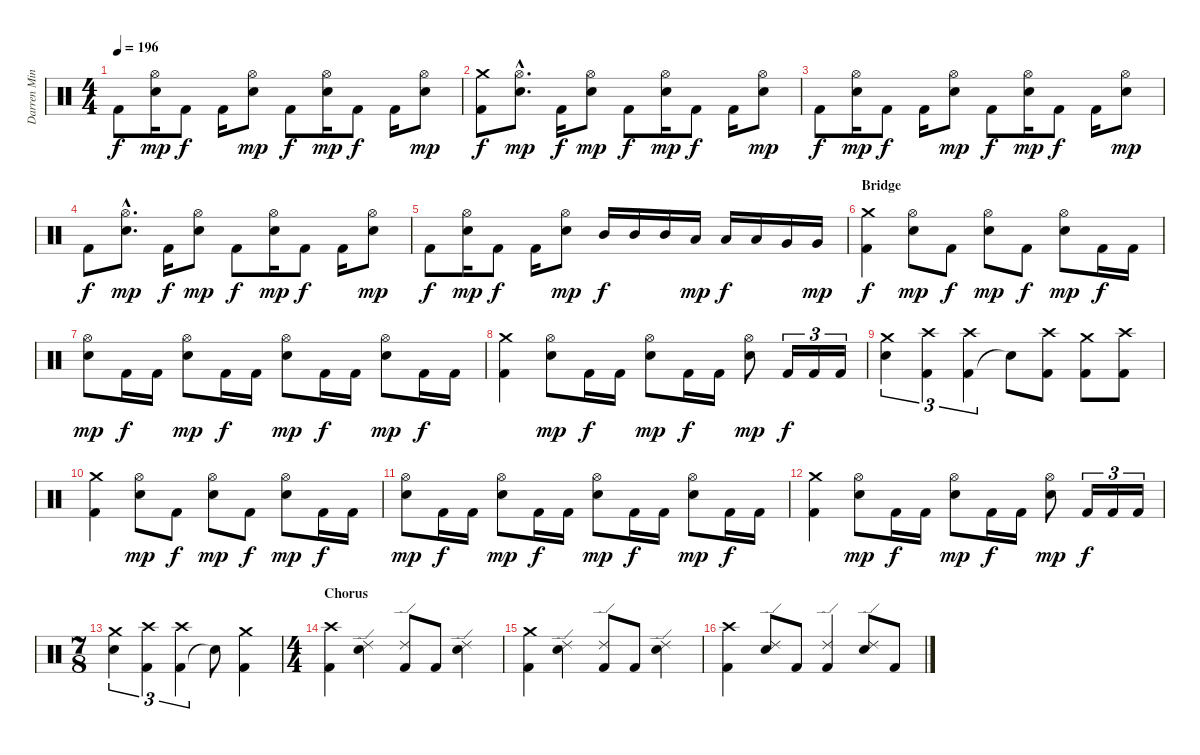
\track ("Darren Minter" "Darren Min") {instrument percussion}
\staff {score}
\articulation defaults
\ts (4 4)
\tempo 196
\clef neutral
\ks c "Kick (hit) 2".8{dy f}
("Hi-Hat (open)" "Snare (hit) 2").16{dy mp} "Kick (hit) 2".8{dy f} "Kick (hit) 2".16 ("Hi-Hat (open)" "Snare (hit) 2").8{dy mp} "Kick (hit) 2".8{dy f} ("Hi-Hat (open)" "Snare (hit) 2").16{dy mp} "Kick (hit) 2".8{dy f} "Kick (hit) 2".16 ("Hi-Hat (open)" "Snare (hit) 2").8{dy mp} |
("Kick (hit) 2" "Crash medium (hit)").8{dy f} ("Hi-Hat (open)"{hac} "Snare (hit) 2"{hac}).8{d dy mp} "Kick (hit) 2".16{dy f} ("Hi-Hat (open)" "Snare (hit) 2").8{dy mp} "Kick (hit) 2".8{dy f} ("Hi-Hat (open)" "Snare (hit) 2").16{dy mp} "Kick (hit) 2".8{dy f} "Kick (hit) 2".16 ("Hi-Hat (open)" "Snare (hit) 2").8{dy mp} |
"Kick (hit) 2".8{dy f} ("Hi-Hat (open)" "Snare (hit) 2").16{dy mp} "Kick (hit) 2".8{dy f} "Kick (hit) 2".16 ("Hi-Hat (open)" "Snare (hit) 2").8{dy mp} "Kick (hit) 2".8{dy f} ("Hi-Hat (open)" "Snare (hit) 2").16{dy mp} "Kick (hit) 2".8{dy f} "Kick (hit) 2".16 ("Hi-Hat (open)" "Snare (hit) 2").8{dy mp} |
"Kick (hit) 2".8{dy f} ("Hi-Hat (open)"{hac} "Snare (hit) 2"{hac}).8{d dy mp} "Kick (hit) 2".16{dy f} ("Hi-Hat (open)" "Snare (hit) 2").8{dy mp} "Kick (hit) 2".8{dy f} ("Hi-Hat (open)" "Snare (hit) 2").16{dy mp} "Kick (hit) 2".8{dy f} "Kick (hit) 2".16 ("Hi-Hat (open)" "Snare (hit) 2").8{dy mp} |
"Kick (hit) 2".8{dy f} ("Hi-Hat (open)" "Snare (hit) 2").16{dy mp} "Kick (hit) 2".8{dy f} "Kick (hit) 2".16 ("Hi-Hat (open)" "Snare (hit) 2").8{dy mp} "Mid Tom (hit)".16{dy f} "Mid Tom (hit)".16 "Mid Tom (hit)".16 "Low Tom (hit)".16{dy mp} "Low Tom (hit)".16{dy f} "Low Tom (hit)".16 "Very Low Tom (hit)".16 "Very Low Tom (hit)".16{dy mp} |
\section ("" "Bridge")
("Kick (hit) 2" "Crash medium (hit)").4{dy f} ("Hi-Hat (open)" "Snare (hit) 2").8{dy mp} "Kick (hit) 2".8{dy f} ("Hi-Hat (open)" "Snare (hit) 2").8{dy mp} "Kick (hit) 2".8{dy f} ("Hi-Hat (open)" "Snare (hit) 2").8{dy mp} "Kick (hit) 2".16{dy f} "Kick (hit) 2".16 |
("Hi-Hat (open)" "Snare (hit) 2").8{dy mp} "Kick (hit) 2".16{dy f} "Kick (hit) 2".16 ("Hi-Hat (open)" "Snare (hit) 2").8{dy mp} "Kick (hit) 2".16{dy f} "Kick (hit) 2".16 ("Hi-Hat (open)" "Snare (hit) 2").8{dy mp} "Kick (hit) 2".16{dy f} "Kick (hit) 2".16 ("Hi-Hat (open)" "Snare (hit) 2").8{dy mp} "Kick (hit) 2".16{dy f} "Kick (hit) 2".16 |
("Kick (hit) 2" "Crash medium (hit)").4 ("Hi-Hat (open)" "Snare (hit) 2").8{dy mp} "Kick (hit) 2".16{dy f} "Kick (hit) 2".16 ("Hi-Hat (open)" "Snare (hit) 2").8{dy mp} "Kick (hit) 2".16{dy f} "Kick (hit) 2".16 ("Hi-Hat (open)" "Snare (hit) 2").8{dy mp} "Kick (hit) 2".16{tu (3 2) dy f} "Kick (hit) 2".16{tu (3 2)} "Kick (hit) 2".16{tu (3 2)} |
("Crash medium (hit)" "Snare (hit) 2").4{tu (3 2)} ("Kick (hit) 2" "Crash high (hit)").4{tu (3 2)} ("Kick (hit) 2" "Crash high (hit)").4{tu (3 2)} "Snare (hit)"{t}.8 ("Kick (hit) 2" "Crash high (hit)").8 ("Kick (hit) 2" "Crash medium (hit)").8 ("Kick (hit) 2" "Crash high (hit)").8 |
("Kick (hit) 2" "Crash medium (hit)").4 ("Hi-Hat (open)" "Snare (hit) 2").8{dy mp} "Kick (hit) 2".8{dy f} ("Hi-Hat (open)" "Snare (hit) 2").8{dy mp} "Kick (hit) 2".8{dy f} ("Hi-Hat (open)" "Snare (hit) 2").8{dy mp} "Kick (hit) 2".16{dy f} "Kick (hit) 2".16 |
("Hi-Hat (open)" "Snare (hit) 2").8{dy mp} "Kick (hit) 2".16{dy f} "Kick (hit) 2".16 ("Hi-Hat (open)" "Snare (hit) 2").8{dy mp} "Kick (hit) 2".16{dy f} "Kick (hit) 2".16 ("Hi-Hat (open)" "Snare (hit) 2").8{dy mp} "Kick (hit) 2".16{dy f} "Kick (hit) 2".16 ("Hi-Hat (open)" "Snare (hit) 2").8{dy mp} "Kick (hit) 2".16{dy f} "Kick (hit) 2".16 |
("Kick (hit) 2" "Crash medium (hit)").4 ("Hi-Hat (open)" "Snare (hit) 2").8{dy mp} "Kick (hit) 2".16{dy f} "Kick (hit) 2".16 ("Hi-Hat (open)" "Snare (hit) 2").8{dy mp} "Kick (hit) 2".16{dy f} "Kick (hit) 2".16 ("Hi-Hat (open)" "Snare (hit) 2").8{dy mp} "Kick (hit) 2".16{tu (3 2) dy f} "Kick (hit) 2".16{tu (3 2)} "Kick (hit) 2".16{tu (3 2)} |
\ts (7 8)
("Crash medium (hit)" "Snare (hit) 2").4{tu (3 2)} ("Kick (hit) 2" "Crash high (hit)").4{tu (3 2)} ("Kick (hit) 2" "Crash high (hit)").4{tu (3 2)} "Snare (hit)"{t}.8 ("Kick (hit) 2" "Crash medium (hit)").4 |
\ts (4 4)
\section ("" "Chorus")
("Kick (hit) 2" "Crash high (hit)").4 ("Ride (edge) 2" "Snare (hit) 2").4 ("Kick (hit) 2" "Ride (edge) 2").8 "Kick (hit) 2".8 ("Ride (edge) 2" "Snare (hit) 2").4 |
("Kick (hit) 2" "Crash medium (hit)").4 ("Ride (edge) 2" "Snare (hit) 2").4 ("Kick (hit) 2" "Ride (edge) 2").8 "Kick (hit) 2".8 ("Ride (edge) 2" "Snare (hit) 2").4 |
("Kick (hit) 2" "Crash high (hit)").4 ("Ride (edge) 2" "Snare (hit) 2").8 "Kick (hit) 2".8 ("Kick (hit) 2" "Ride (edge) 2").4 ("Ride (edge) 2" "Snare (hit) 2").8 "Kick (hit) 2".8
